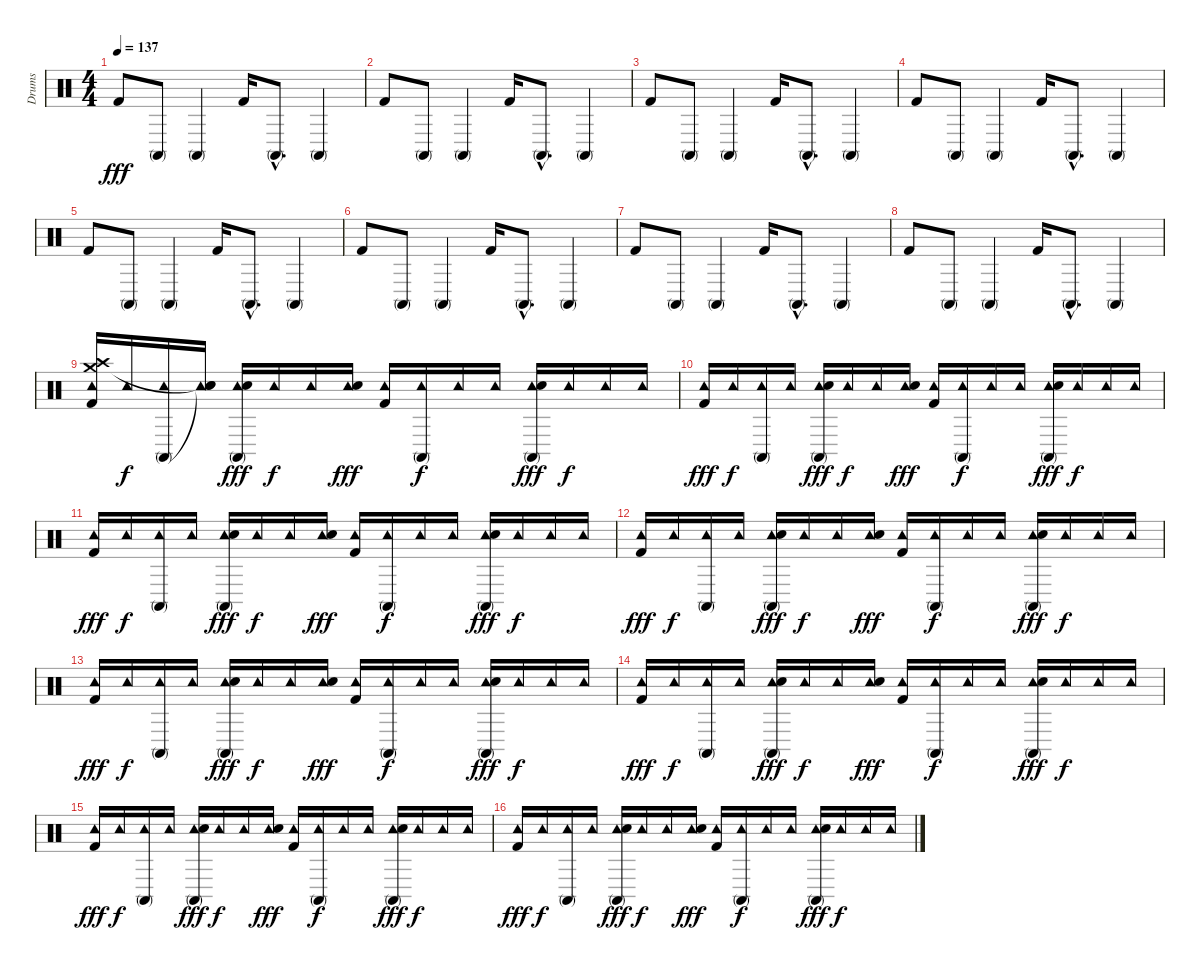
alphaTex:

\track ("Drums" "Drums") {instrument percussion}
\staff {score}
\articulation defaults
\ts (4 4)
\tempo 137
\clef neutral
\ks c "Kick (hit) 2".8{dy fff} "Conga high (mute)".8 "Conga high (mute)".4 "Kick (hit) 2".16 "Conga high (mute)"{hac}.8{d} "Conga high (mute)".4
|
"Kick (hit) 2".8 "Conga high (mute)".8 "Conga high (mute)".4 "Kick (hit) 2".16 "Conga high (mute)"{hac}.8{d} "Conga high (mute)".4 |
"Kick (hit) 2".8 "Conga high (mute)".8 "Conga high (mute)".4 "Kick (hit) 2".16 "Conga high (mute)"{hac}.8{d} "Conga high (mute)".4 |
"Kick (hit) 2".8 "Conga high (mute)".8 "Conga high (mute)".4 "Kick (hit) 2".16 "Conga high (mute)"{hac}.8{d} "Conga high (mute)".4 |
"Kick (hit) 2".8 "Conga high (mute)".8 "Conga high (mute)".4 "Kick (hit) 2".16 "Conga high (mute)"{hac}.8{d} "Conga high (mute)".4 |
"Kick (hit) 2".8 "Conga high (mute)".8 "Conga high (mute)".4 "Kick (hit) 2".16 "Conga high (mute)"{hac}.8{d} "Conga high (mute)".4 |
"Kick (hit) 2".8 "Conga high (mute)".8 "Conga high (mute)".4 "Kick (hit) 2".16 "Conga high (mute)"{hac}.8{d} "Conga high (mute)".4 |
"Kick (hit) 2".8 "Conga high (mute)".8 "Conga high (mute)".4 "Kick (hit) 2".16 "Conga high (mute)"{hac}.8{d} "Conga high (mute)".4 |
("Tambourine (hit)" "Crash high (hit)" "Crash medium (hit)" "Kick (hit) 2").16 "Tambourine (hit)".16{dy f} ("Tambourine (hit)" "Conga high (mute)").16 ("Tambourine (hit)" "Snare (hit)"{t} "Snare (hit)"{t}).16 ("Tambourine (hit)" "Conga high (mute)" "Electric Snare (hit)").16{dy fff} "Tambourine (hit)".16{dy f} "Tambourine (hit)".16 ("Tambourine (hit)" "Electric Snare (hit)").16{dy fff} ("Tambourine (hit)" "Kick (hit) 2").16 ("Tambourine (hit)" "Conga high (mute)").16{dy f} "Tambourine (hit)".16 "Tambourine (hit)".16 ("Tambourine (hit)" "Conga high (mute)" "Electric Snare (hit)").16{dy fff} "Tambourine (hit)".16{dy f} "Tambourine (hit)".16 "Tambourine (hit)".16 |
("Tambourine (hit)" "Kick (hit) 2").16{dy fff} "Tambourine (hit)".16{dy f} ("Tambourine (hit)" "Conga high (mute)").16 "Tambourine (hit)".16 ("Tambourine (hit)" "Conga high (mute)" "Electric Snare (hit)").16{dy fff} "Tambourine (hit)".16{dy f} "Tambourine (hit)".16 ("Tambourine (hit)" "Electric Snare (hit)").16{dy fff} ("Tambourine (hit)" "Kick (hit) 2").16 ("Tambourine (hit)" "Conga high (mute)").16{dy f} "Tambourine (hit)".16 "Tambourine (hit)".16 ("Tambourine (hit)" "Conga high (mute)" "Electric Snare (hit)").16{dy fff} "Tambourine (hit)".16{dy f} "Tambourine (hit)".16 "Tambourine (hit)".16 |
("Tambourine (hit)" "Kick (hit) 2").16{dy fff} "Tambourine (hit)".16{dy f} ("Tambourine (hit)" "Conga high (mute)").16 "Tambourine (hit)".16 ("Tambourine (hit)" "Conga high (mute)" "Electric Snare (hit)").16{dy fff} "Tambourine (hit)".16{dy f} "Tambourine (hit)".16 ("Tambourine (hit)" "Electric Snare (hit)").16{dy fff} ("Tambourine (hit)" "Kick (hit) 2").16 ("Tambourine (hit)" "Conga high (mute)").16{dy f} "Tambourine (hit)".16 "Tambourine (hit)".16 ("Tambourine (hit)" "Conga high (mute)" "Electric Snare (hit)").16{dy fff} "Tambourine (hit)".16{dy f} "Tambourine (hit)".16 "Tambourine (hit)".16 |
("Tambourine (hit)" "Kick (hit) 2").16{dy fff} "Tambourine (hit)".16{dy f} ("Tambourine (hit)" "Conga high (mute)").16 "Tambourine (hit)".16 ("Tambourine (hit)" "Conga high (mute)" "Electric Snare (hit)").16{dy fff} "Tambourine (hit)".16{dy f} "Tambourine (hit)".16 ("Tambourine (hit)" "Electric Snare (hit)").16{dy fff} ("Tambourine (hit)" "Kick (hit) 2").16 ("Tambourine (hit)" "Conga high (mute)").16{dy f} "Tambourine (hit)".16 "Tambourine (hit)".16 ("Tambourine (hit)" "Conga high (mute)" "Electric Snare (hit)").16{dy fff} "Tambourine (hit)".16{dy f} "Tambourine (hit)".16 "Tambourine (hit)".16 |
("Tambourine (hit)" "Kick (hit) 2").16{dy fff} "Tambourine (hit)".16{dy f} ("Tambourine (hit)" "Conga high (mute)").16 "Tambourine (hit)".16 ("Tambourine (hit)" "Conga high (mute)" "Electric Snare (hit)").16{dy fff} "Tambourine (hit)".16{dy f} "Tambourine (hit)".16 ("Tambourine (hit)" "Electric Snare (hit)").16{dy fff} ("Tambourine (hit)" "Kick (hit) 2").16 ("Tambourine (hit)" "Conga high (mute)").16{dy f} "Tambourine (hit)".16 "Tambourine (hit)".16 ("Tambourine (hit)" "Conga high (mute)" "Electric Snare (hit)").16{dy fff} "Tambourine (hit)".16{dy f} "Tambourine (hit)".16 "Tambourine (hit)".16 |
("Tambourine (hit)" "Kick (hit) 2").16{dy fff} "Tambourine (hit)".16{dy f} ("Tambourine (hit)" "Conga high (mute)").16 "Tambourine (hit)".16 ("Tambourine (hit)" "Conga high (mute)" "Electric Snare (hit)").16{dy fff} "Tambourine (hit)".16{dy f} "Tambourine (hit)".16 ("Tambourine (hit)" "Electric Snare (hit)").16{dy fff} ("Tambourine (hit)" "Kick (hit) 2").16 ("Tambourine (hit)" "Conga high (mute)").16{dy f} "Tambourine (hit)".16 "Tambourine (hit)".16 ("Tambourine (hit)" "Conga high (mute)" "Electric Snare (hit)").16{dy fff} "Tambourine (hit)".16{dy f} "Tambourine (hit)".16 "Tambourine (hit)".16 |
("Tambourine (hit)" "Kick (hit) 2").16{dy fff} "Tambourine (hit)".16{dy f} ("Tambourine (hit)" "Conga high (mute)").16 "Tambourine (hit)".16 ("Tambourine (hit)" "Conga high (mute)" "Electric Snare (hit)").16{dy fff} "Tambourine (hit)".16{dy f} "Tambourine (hit)".16 ("Tambourine (hit)" "Electric Snare (hit)").16{dy fff} ("Tambourine (hit)" "Kick (hit) 2").16 ("Tambourine (hit)" "Conga high (mute)").16{dy f} "Tambourine (hit)".16 "Tambourine (hit)".16 ("Tambourine (hit)" "Conga high (mute)" "Electric Snare (hit)").16{dy fff} "Tambourine (hit)".16{dy f} "Tambourine (hit)".16 "Tambourine (hit)".16 |
("Tambourine (hit)" "Kick (hit) 2").16{dy fff} "Tambourine (hit)".16{dy f} ("Tambourine (hit)" "Conga high (mute)").16 "Tambourine (hit)".16 ("Tambourine (hit)" "Conga high (mute)" "Electric Snare (hit)").16{dy fff} "Tambourine (hit)".16{dy f} "Tambourine (hit)".16 ("Tambourine (hit)" "Electric Snare (hit)").16{dy fff} ("Tambourine (hit)" "Kick (hit) 2").16 ("Tambourine (hit)" "Conga high (mute)").16{dy f} "Tambourine (hit)".16 "Tambourine (hit)".16 ("Tambourine (hit)" "Conga high (mute)" "Electric Snare (hit)").16{dy fff} "Tambourine (hit)".16{dy f} "Tambourine (hit)".16 "Tambourine (hit)".16
